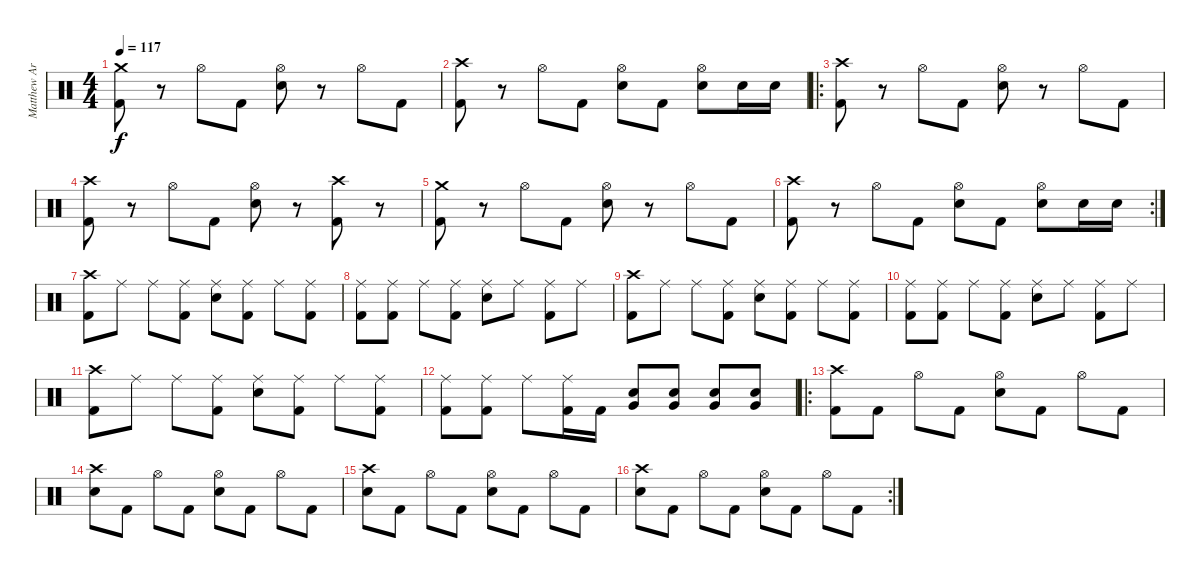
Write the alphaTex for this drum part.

\track ("Matthew Archer" "Matthew Ar") {instrument percussion}
\staff {score}
\articulation defaults
\ts (4 4)
\tempo 117
\clef neutral
\ks c
("Crash medium (hit)" "Kick (hit) 2").8{dy f} r.8 "Hi-Hat (open)".8 "Kick (hit) 2".8 ("Hi-Hat (open)" "Snare (hit) 2").8 r.8 "Hi-Hat (open)".8 "Kick (hit) 2".8 |
("Crash high (hit)" "Kick (hit) 2").8 r.8 "Hi-Hat (open)".8 "Kick (hit) 2".8 ("Hi-Hat (open)" "Snare (hit) 2").8 "Kick (hit) 2".8 ("Hi-Hat (open)" "Snare (hit) 2").8 "Snare (hit) 2".16 "Snare (hit) 2".16 |
\ro
("Crash high (hit)" "Kick (hit) 2").8 r.8 "Hi-Hat (open)".8 "Kick (hit) 2".8 ("Hi-Hat (open)" "Snare (hit) 2").8 r.8 "Hi-Hat (open)".8 "Kick (hit) 2".8 |
("Crash high (hit)" "Kick (hit) 2").8 r.8 "Hi-Hat (open)".8 "Kick (hit) 2".8 ("Hi-Hat (open)" "Snare (hit) 2").8 r.8 ("Crash high (hit)" "Kick (hit) 2").8 r.8 |
("Crash medium (hit)" "Kick (hit) 2").8 r.8 "Hi-Hat (open)".8 "Kick (hit) 2".8 ("Hi-Hat (open)" "Snare (hit) 2").8 r.8 "Hi-Hat (open)".8 "Kick (hit) 2".8 |
\rc 2
("Crash high (hit)" "Kick (hit) 2").8 r.8 "Hi-Hat (open)".8 "Kick (hit) 2".8 ("Hi-Hat (open)" "Snare (hit) 2").8 "Kick (hit) 2".8 ("Hi-Hat (open)" "Snare (hit) 2").8 "Snare (hit) 2".16 "Snare (hit) 2".16 |
("Crash high (hit)" "Kick (hit) 2").8 "Ride (middle)".8 "Ride (middle)".8 ("Ride (middle)" "Kick (hit) 2").8 ("Ride (middle)" "Snare (hit) 2").8 ("Ride (middle)" "Kick (hit) 2").8 "Ride (middle)".8 ("Ride (middle)" "Kick (hit) 2").8 |
("Ride (middle)" "Kick (hit) 2").8 ("Ride (middle)" "Kick (hit) 2").8 "Ride (middle)".8 ("Ride (middle)" "Kick (hit) 2").8 ("Ride (middle)" "Snare (hit) 2").8 "Ride (middle)".8 ("Ride (middle)" "Kick (hit) 2").8 "Ride (middle)".8 |
("Crash high (hit)" "Kick (hit) 2").8 "Ride (middle)".8 "Ride (middle)".8 ("Ride (middle)" "Kick (hit) 2").8 ("Ride (middle)" "Snare (hit) 2").8 ("Ride (middle)" "Kick (hit) 2").8 "Ride (middle)".8 ("Ride (middle)" "Kick (hit) 2").8 |
("Ride (middle)" "Kick (hit) 2").8 ("Ride (middle)" "Kick (hit) 2").8 "Ride (middle)".8 ("Ride (middle)" "Kick (hit) 2").8 ("Ride (middle)" "Snare (hit) 2").8 "Ride (middle)".8 ("Ride (middle)" "Kick (hit) 2").8 "Ride (middle)".8 |
("Crash high (hit)" "Kick (hit) 2").8 "Ride (middle)".8 "Ride (middle)".8 ("Ride (middle)" "Kick (hit) 2").8 ("Ride (middle)" "Snare (hit) 2").8 ("Ride (middle)" "Kick (hit) 2").8 "Ride (middle)".8 ("Ride (middle)" "Kick (hit) 2").8 |
("Ride (middle)" "Kick (hit) 2").8 ("Ride (middle)" "Kick (hit) 2").8 "Ride (middle)".8 ("Ride (middle)" "Kick (hit) 2").16 "Kick (hit) 2".16 ("Very Low Tom (hit)" "Snare (hit) 2").8 ("Very Low Tom (hit)" "Snare (hit) 2").8 ("Very Low Tom (hit)" "Snare (hit) 2").8 ("Very Low Tom (hit)" "Snare (hit) 2").8 |
\ro
("Crash high (hit)" "Kick (hit) 2").8 "Kick (hit) 2".8 "Hi-Hat (open)".8 "Kick (hit) 2".8 ("Hi-Hat (open)" "Snare (hit) 2").8 "Kick (hit) 2".8 "Hi-Hat (open)".8 "Kick (hit) 2".8 |
("Crash high (hit)" "Snare (hit) 2").8 "Kick (hit) 2".8 "Hi-Hat (open)".8 "Kick (hit) 2".8 ("Hi-Hat (open)" "Snare (hit) 2").8 "Kick (hit) 2".8 "Hi-Hat (open)".8 "Kick (hit) 2".8 |
("Crash high (hit)" "Snare (hit) 2").8 "Kick (hit) 2".8 "Hi-Hat (open)".8 "Kick (hit) 2".8 ("Hi-Hat (open)" "Snare (hit) 2").8 "Kick (hit) 2".8 "Hi-Hat (open)".8 "Kick (hit) 2".8 |
\rc 2
("Crash high (hit)" "Snare (hit) 2").8 "Kick (hit) 2".8 "Hi-Hat (open)".8 "Kick (hit) 2".8 ("Hi-Hat (open)" "Snare (hit) 2").8 "Kick (hit) 2".8 "Hi-Hat (open)".8 "Kick (hit) 2".8
